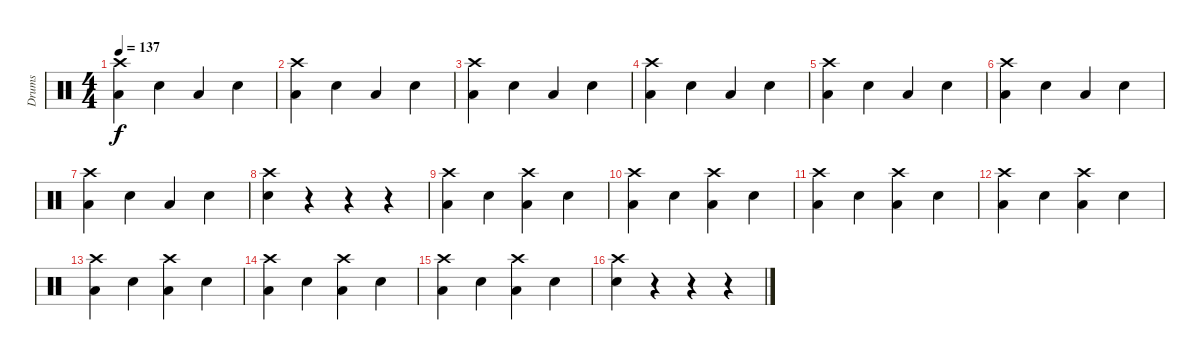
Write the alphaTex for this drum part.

\track ("Drums" "Drums") {instrument percussion}
\staff {score}
\articulation defaults
\ts (4 4)
\tempo 137
\clef neutral
\ks c
("Crash high (hit)" "Low Floor Tom (hit)").4{dy f} "Electric Snare (hit)".4 "Low Floor Tom (hit)".4 "Electric Snare (hit)".4 |
("Crash high (hit)" "Low Floor Tom (hit)").4 "Electric Snare (hit)".4 "Low Floor Tom (hit)".4 "Electric Snare (hit)".4 |
("Crash high (hit)" "Low Floor Tom (hit)").4 "Electric Snare (hit)".4 "Low Floor Tom (hit)".4 "Electric Snare (hit)".4 |
("Crash high (hit)" "Low Floor Tom (hit)").4 "Electric Snare (hit)".4 "Low Floor Tom (hit)".4 "Electric Snare (hit)".4 |
("Crash high (hit)" "Low Floor Tom (hit)").4 "Electric Snare (hit)".4 "Low Floor Tom (hit)".4 "Electric Snare (hit)".4 |
("Crash high (hit)" "Low Floor Tom (hit)").4 "Electric Snare (hit)".4 "Low Floor Tom (hit)".4 "Electric Snare (hit)".4 |
("Crash high (hit)" "Low Floor Tom (hit)").4 "Electric Snare (hit)".4 "Low Floor Tom (hit)".4 "Electric Snare (hit)".4 |
("Electric Snare (hit)" "Crash high (hit)").4 r.4 r.4 r.4 |
("Crash high (hit)" "Low Floor Tom (hit)").4 "Electric Snare (hit)".4 ("Crash high (hit)" "Low Floor Tom (hit)").4 "Electric Snare (hit)".4 |
("Crash high (hit)" "Low Floor Tom (hit)").4 "Electric Snare (hit)".4 ("Crash high (hit)" "Low Floor Tom (hit)").4 "Electric Snare (hit)".4 |
("Crash high (hit)" "Low Floor Tom (hit)").4 "Electric Snare (hit)".4 ("Crash high (hit)" "Low Floor Tom (hit)").4 "Electric Snare (hit)".4 |
("Crash high (hit)" "Low Floor Tom (hit)").4 "Electric Snare (hit)".4 ("Crash high (hit)" "Low Floor Tom (hit)").4 "Electric Snare (hit)".4 |
("Crash high (hit)" "Low Floor Tom (hit)").4 "Electric Snare (hit)".4 ("Crash high (hit)" "Low Floor Tom (hit)").4 "Electric Snare (hit)".4 |
("Crash high (hit)" "Low Floor Tom (hit)").4 "Electric Snare (hit)".4 ("Crash high (hit)" "Low Floor Tom (hit)").4 "Electric Snare (hit)".4 |
("Crash high (hit)" "Low Floor Tom (hit)").4 "Electric Snare (hit)".4 ("Crash high (hit)" "Low Floor Tom (hit)").4 "Electric Snare (hit)".4 |
("Electric Snare (hit)" "Crash high (hit)").4 r.4 r.4 r.4
